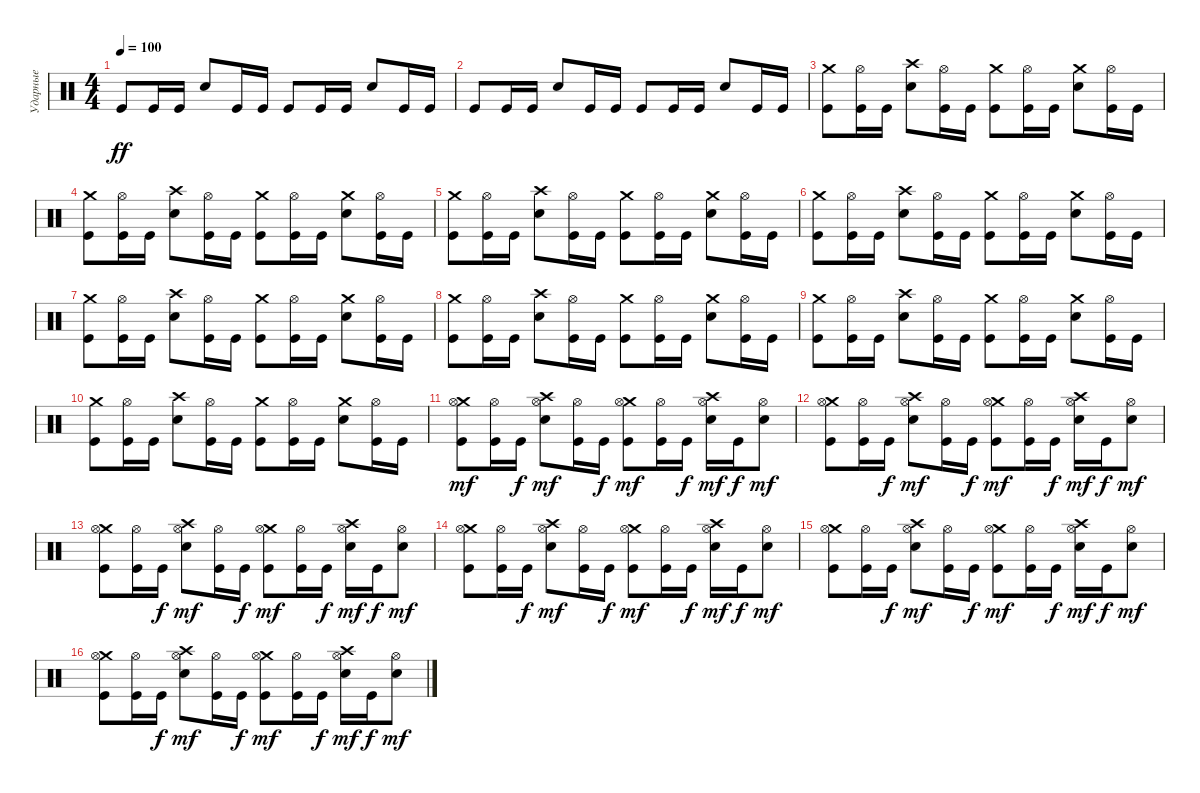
\track ("Ударные" "Ударные") {instrument percussion}
\staff {score}
\articulation defaults
\ts (4 4)
\tempo 100
\clef neutral
\ks c "Kick (hit)".8{dy ff} "Kick (hit)".16 "Kick (hit)".16 "Electric Snare (hit)".8 "Kick (hit)".16 "Kick (hit)".16 "Kick (hit)".8 "Kick (hit)".16 "Kick (hit)".16 "Electric Snare (hit)".8 "Kick (hit)".16 "Kick (hit)".16
|
"Kick (hit)".8 "Kick (hit)".16 "Kick (hit)".16 "Electric Snare (hit)".8 "Kick (hit)".16 "Kick (hit)".16 "Kick (hit)".8 "Kick (hit)".16 "Kick (hit)".16 "Electric Snare (hit)".8 "Kick (hit)".16 "Kick (hit)".16 |
("Crash medium (hit)" "Kick (hit)").8 ("Hi-Hat (open)" "Kick (hit)").16 "Kick (hit)".16 ("Crash high (hit)" "Electric Snare (hit)").8 ("Hi-Hat (open)" "Kick (hit)").16 "Kick (hit)".16 ("Crash medium (hit)" "Kick (hit)").8 ("Hi-Hat (open)" "Kick (hit)").16 "Kick (hit)".16 ("Crash medium (hit)" "Electric Snare (hit)").8 ("Hi-Hat (open)" "Kick (hit)").16 "Kick (hit)".16 |
("Crash medium (hit)" "Kick (hit)").8 ("Hi-Hat (open)" "Kick (hit)").16 "Kick (hit)".16 ("Crash high (hit)" "Electric Snare (hit)").8 ("Hi-Hat (open)" "Kick (hit)").16 "Kick (hit)".16 ("Crash medium (hit)" "Kick (hit)").8 ("Hi-Hat (open)" "Kick (hit)").16 "Kick (hit)".16 ("Crash medium (hit)" "Electric Snare (hit)").8 ("Hi-Hat (open)" "Kick (hit)").16 "Kick (hit)".16 |
("Crash medium (hit)" "Kick (hit)").8 ("Hi-Hat (open)" "Kick (hit)").16 "Kick (hit)".16 ("Crash high (hit)" "Electric Snare (hit)").8 ("Hi-Hat (open)" "Kick (hit)").16 "Kick (hit)".16 ("Crash medium (hit)" "Kick (hit)").8 ("Hi-Hat (open)" "Kick (hit)").16 "Kick (hit)".16 ("Crash medium (hit)" "Electric Snare (hit)").8 ("Hi-Hat (open)" "Kick (hit)").16 "Kick (hit)".16 |
("Crash medium (hit)" "Kick (hit)").8 ("Hi-Hat (open)" "Kick (hit)").16 "Kick (hit)".16 ("Crash high (hit)" "Electric Snare (hit)").8 ("Hi-Hat (open)" "Kick (hit)").16 "Kick (hit)".16 ("Crash medium (hit)" "Kick (hit)").8 ("Hi-Hat (open)" "Kick (hit)").16 "Kick (hit)".16 ("Crash medium (hit)" "Electric Snare (hit)").8 ("Hi-Hat (open)" "Kick (hit)").16 "Kick (hit)".16 |
("Crash medium (hit)" "Kick (hit)").8 ("Hi-Hat (open)" "Kick (hit)").16 "Kick (hit)".16 ("Crash high (hit)" "Electric Snare (hit)").8 ("Hi-Hat (open)" "Kick (hit)").16 "Kick (hit)".16 ("Crash medium (hit)" "Kick (hit)").8 ("Hi-Hat (open)" "Kick (hit)").16 "Kick (hit)".16 ("Crash medium (hit)" "Electric Snare (hit)").8 ("Hi-Hat (open)" "Kick (hit)").16 "Kick (hit)".16 |
("Crash medium (hit)" "Kick (hit)").8 ("Hi-Hat (open)" "Kick (hit)").16 "Kick (hit)".16 ("Crash high (hit)" "Electric Snare (hit)").8 ("Hi-Hat (open)" "Kick (hit)").16 "Kick (hit)".16 ("Crash medium (hit)" "Kick (hit)").8 ("Hi-Hat (open)" "Kick (hit)").16 "Kick (hit)".16 ("Crash medium (hit)" "Electric Snare (hit)").8 ("Hi-Hat (open)" "Kick (hit)").16 "Kick (hit)".16 |
("Crash medium (hit)" "Kick (hit)").8 ("Hi-Hat (open)" "Kick (hit)").16 "Kick (hit)".16 ("Crash high (hit)" "Electric Snare (hit)").8 ("Hi-Hat (open)" "Kick (hit)").16 "Kick (hit)".16 ("Crash medium (hit)" "Kick (hit)").8 ("Hi-Hat (open)" "Kick (hit)").16 "Kick (hit)".16 ("Crash medium (hit)" "Electric Snare (hit)").8 ("Hi-Hat (open)" "Kick (hit)").16 "Kick (hit)".16 |
("Crash medium (hit)" "Kick (hit)").8 ("Hi-Hat (open)" "Kick (hit)").16 "Kick (hit)".16 ("Crash high (hit)" "Electric Snare (hit)").8 ("Hi-Hat (open)" "Kick (hit)").16 "Kick (hit)".16 ("Crash medium (hit)" "Kick (hit)").8 ("Hi-Hat (open)" "Kick (hit)").16 "Kick (hit)".16 ("Crash medium (hit)" "Electric Snare (hit)").8 ("Hi-Hat (open)" "Kick (hit)").16 "Kick (hit)".16 |
("Crash medium (hit)" "Hi-Hat (open)" "Kick (hit)").8{dy mf} ("Hi-Hat (open)" "Kick (hit)").16 "Kick (hit)".16{dy f} ("Crash high (hit)" "Hi-Hat (open)" "Electric Snare (hit)").8{dy mf} ("Hi-Hat (open)" "Kick (hit)").16 "Kick (hit)".16{dy f} ("Crash medium (hit)" "Hi-Hat (open)" "Kick (hit)").8{dy mf} ("Hi-Hat (open)" "Kick (hit)").16 "Kick (hit)".16{dy f} ("Crash high (hit)" "Hi-Hat (open)" "Electric Snare (hit)").16{dy mf} "Kick (hit)".16{dy f} ("Hi-Hat (open)" "Electric Snare (hit)").8{dy mf} |
("Crash medium (hit)" "Hi-Hat (open)" "Kick (hit)").8 ("Hi-Hat (open)" "Kick (hit)").16 "Kick (hit)".16{dy f} ("Crash high (hit)" "Hi-Hat (open)" "Electric Snare (hit)").8{dy mf} ("Hi-Hat (open)" "Kick (hit)").16 "Kick (hit)".16{dy f} ("Crash medium (hit)" "Hi-Hat (open)" "Kick (hit)").8{dy mf} ("Hi-Hat (open)" "Kick (hit)").16 "Kick (hit)".16{dy f} ("Crash high (hit)" "Hi-Hat (open)" "Electric Snare (hit)").16{dy mf} "Kick (hit)".16{dy f} ("Hi-Hat (open)" "Electric Snare (hit)").8{dy mf} |
("Crash medium (hit)" "Hi-Hat (open)" "Kick (hit)").8 ("Hi-Hat (open)" "Kick (hit)").16 "Kick (hit)".16{dy f} ("Crash high (hit)" "Hi-Hat (open)" "Electric Snare (hit)").8{dy mf} ("Hi-Hat (open)" "Kick (hit)").16 "Kick (hit)".16{dy f} ("Crash medium (hit)" "Hi-Hat (open)" "Kick (hit)").8{dy mf} ("Hi-Hat (open)" "Kick (hit)").16 "Kick (hit)".16{dy f} ("Crash high (hit)" "Hi-Hat (open)" "Electric Snare (hit)").16{dy mf} "Kick (hit)".16{dy f} ("Hi-Hat (open)" "Electric Snare (hit)").8{dy mf} |
("Crash medium (hit)" "Hi-Hat (open)" "Kick (hit)").8 ("Hi-Hat (open)" "Kick (hit)").16 "Kick (hit)".16{dy f} ("Crash high (hit)" "Hi-Hat (open)" "Electric Snare (hit)").8{dy mf} ("Hi-Hat (open)" "Kick (hit)").16 "Kick (hit)".16{dy f} ("Crash medium (hit)" "Hi-Hat (open)" "Kick (hit)").8{dy mf} ("Hi-Hat (open)" "Kick (hit)").16 "Kick (hit)".16{dy f} ("Crash high (hit)" "Hi-Hat (open)" "Electric Snare (hit)").16{dy mf} "Kick (hit)".16{dy f} ("Hi-Hat (open)" "Electric Snare (hit)").8{dy mf} |
("Crash medium (hit)" "Hi-Hat (open)" "Kick (hit)").8 ("Hi-Hat (open)" "Kick (hit)").16 "Kick (hit)".16{dy f} ("Crash high (hit)" "Hi-Hat (open)" "Electric Snare (hit)").8{dy mf} ("Hi-Hat (open)" "Kick (hit)").16 "Kick (hit)".16{dy f} ("Crash medium (hit)" "Hi-Hat (open)" "Kick (hit)").8{dy mf} ("Hi-Hat (open)" "Kick (hit)").16 "Kick (hit)".16{dy f} ("Crash high (hit)" "Hi-Hat (open)" "Electric Snare (hit)").16{dy mf} "Kick (hit)".16{dy f} ("Hi-Hat (open)" "Electric Snare (hit)").8{dy mf} |
("Crash medium (hit)" "Hi-Hat (open)" "Kick (hit)").8 ("Hi-Hat (open)" "Kick (hit)").16 "Kick (hit)".16{dy f} ("Crash high (hit)" "Hi-Hat (open)" "Electric Snare (hit)").8{dy mf} ("Hi-Hat (open)" "Kick (hit)").16 "Kick (hit)".16{dy f} ("Crash medium (hit)" "Hi-Hat (open)" "Kick (hit)").8{dy mf} ("Hi-Hat (open)" "Kick (hit)").16 "Kick (hit)".16{dy f} ("Crash high (hit)" "Hi-Hat (open)" "Electric Snare (hit)").16{dy mf} "Kick (hit)".16{dy f} ("Hi-Hat (open)" "Electric Snare (hit)").8{dy mf}
